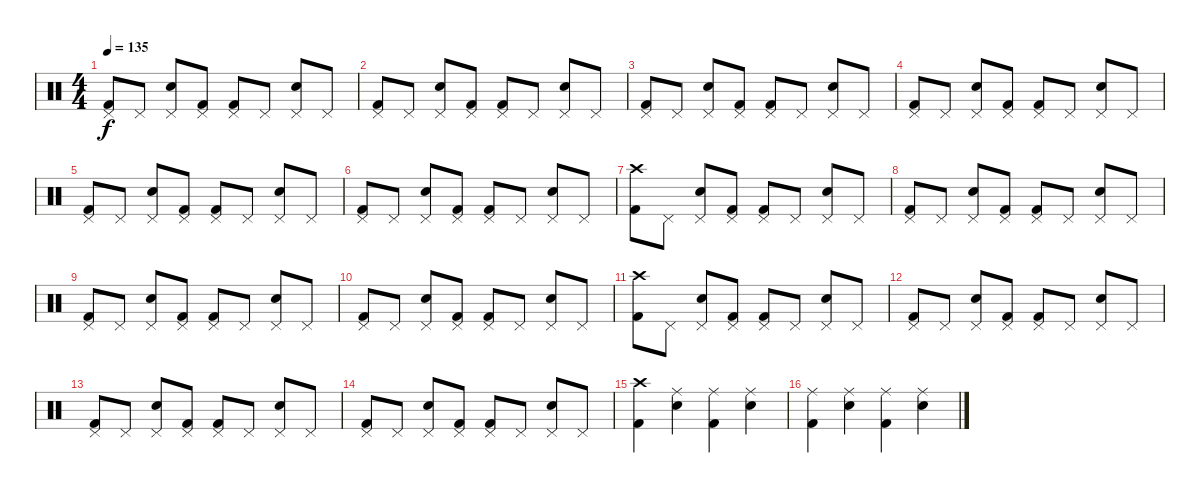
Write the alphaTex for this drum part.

\track "" {instrument percussion}
\staff {score}
\articulation defaults
\ts (4 4)
\tempo 135
\clef neutral
\ks c
("Pedal Hi-Hat (hit)" "Kick (hit) 2").8{dy f} "Pedal Hi-Hat (hit)".8 ("Pedal Hi-Hat (hit)" "Snare (hit) 2").8 ("Pedal Hi-Hat (hit)" "Kick (hit) 2").8 ("Pedal Hi-Hat (hit)" "Kick (hit) 2").8 "Pedal Hi-Hat (hit)".8 ("Pedal Hi-Hat (hit)" "Snare (hit) 2").8 "Pedal Hi-Hat (hit)".8 |
("Pedal Hi-Hat (hit)" "Kick (hit) 2").8 "Pedal Hi-Hat (hit)".8 ("Pedal Hi-Hat (hit)" "Snare (hit) 2").8 ("Pedal Hi-Hat (hit)" "Kick (hit) 2").8 ("Pedal Hi-Hat (hit)" "Kick (hit) 2").8 "Pedal Hi-Hat (hit)".8 ("Pedal Hi-Hat (hit)" "Snare (hit) 2").8 "Pedal Hi-Hat (hit)".8 |
("Pedal Hi-Hat (hit)" "Kick (hit) 2").8 "Pedal Hi-Hat (hit)".8 ("Pedal Hi-Hat (hit)" "Snare (hit) 2").8 ("Pedal Hi-Hat (hit)" "Kick (hit) 2").8 ("Pedal Hi-Hat (hit)" "Kick (hit) 2").8 "Pedal Hi-Hat (hit)".8 ("Pedal Hi-Hat (hit)" "Snare (hit) 2").8 "Pedal Hi-Hat (hit)".8 |
("Pedal Hi-Hat (hit)" "Kick (hit) 2").8 "Pedal Hi-Hat (hit)".8 ("Pedal Hi-Hat (hit)" "Snare (hit) 2").8 ("Pedal Hi-Hat (hit)" "Kick (hit) 2").8 ("Pedal Hi-Hat (hit)" "Kick (hit) 2").8 "Pedal Hi-Hat (hit)".8 ("Pedal Hi-Hat (hit)" "Snare (hit) 2").8 "Pedal Hi-Hat (hit)".8 |
("Pedal Hi-Hat (hit)" "Kick (hit) 2").8 "Pedal Hi-Hat (hit)".8 ("Pedal Hi-Hat (hit)" "Snare (hit) 2").8 ("Pedal Hi-Hat (hit)" "Kick (hit) 2").8 ("Pedal Hi-Hat (hit)" "Kick (hit) 2").8 "Pedal Hi-Hat (hit)".8 ("Pedal Hi-Hat (hit)" "Snare (hit) 2").8 "Pedal Hi-Hat (hit)".8 |
("Pedal Hi-Hat (hit)" "Kick (hit) 2").8 "Pedal Hi-Hat (hit)".8 ("Pedal Hi-Hat (hit)" "Snare (hit) 2").8 ("Pedal Hi-Hat (hit)" "Kick (hit) 2").8 ("Pedal Hi-Hat (hit)" "Kick (hit) 2").8 "Pedal Hi-Hat (hit)".8 ("Pedal Hi-Hat (hit)" "Snare (hit) 2").8 "Pedal Hi-Hat (hit)".8 |
("Crash high (hit)" "Kick (hit) 2").8 "Pedal Hi-Hat (hit)".8 ("Pedal Hi-Hat (hit)" "Snare (hit) 2").8 ("Pedal Hi-Hat (hit)" "Kick (hit) 2").8 ("Pedal Hi-Hat (hit)" "Kick (hit) 2").8 "Pedal Hi-Hat (hit)".8 ("Pedal Hi-Hat (hit)" "Snare (hit) 2").8 "Pedal Hi-Hat (hit)".8 |
("Pedal Hi-Hat (hit)" "Kick (hit) 2").8 "Pedal Hi-Hat (hit)".8 ("Pedal Hi-Hat (hit)" "Snare (hit) 2").8 ("Pedal Hi-Hat (hit)" "Kick (hit) 2").8 ("Pedal Hi-Hat (hit)" "Kick (hit) 2").8 "Pedal Hi-Hat (hit)".8 ("Pedal Hi-Hat (hit)" "Snare (hit) 2").8 "Pedal Hi-Hat (hit)".8 |
("Pedal Hi-Hat (hit)" "Kick (hit) 2").8 "Pedal Hi-Hat (hit)".8 ("Pedal Hi-Hat (hit)" "Snare (hit) 2").8 ("Pedal Hi-Hat (hit)" "Kick (hit) 2").8 ("Pedal Hi-Hat (hit)" "Kick (hit) 2").8 "Pedal Hi-Hat (hit)".8 ("Pedal Hi-Hat (hit)" "Snare (hit) 2").8 "Pedal Hi-Hat (hit)".8 |
("Pedal Hi-Hat (hit)" "Kick (hit) 2").8 "Pedal Hi-Hat (hit)".8 ("Pedal Hi-Hat (hit)" "Snare (hit) 2").8 ("Pedal Hi-Hat (hit)" "Kick (hit) 2").8 ("Pedal Hi-Hat (hit)" "Kick (hit) 2").8 "Pedal Hi-Hat (hit)".8 ("Pedal Hi-Hat (hit)" "Snare (hit) 2").8 "Pedal Hi-Hat (hit)".8 |
("Crash high (hit)" "Kick (hit) 2").8 "Pedal Hi-Hat (hit)".8 ("Pedal Hi-Hat (hit)" "Snare (hit) 2").8 ("Pedal Hi-Hat (hit)" "Kick (hit) 2").8 ("Pedal Hi-Hat (hit)" "Kick (hit) 2").8 "Pedal Hi-Hat (hit)".8 ("Pedal Hi-Hat (hit)" "Snare (hit) 2").8 "Pedal Hi-Hat (hit)".8 |
("Pedal Hi-Hat (hit)" "Kick (hit) 2").8 "Pedal Hi-Hat (hit)".8 ("Pedal Hi-Hat (hit)" "Snare (hit) 2").8 ("Pedal Hi-Hat (hit)" "Kick (hit) 2").8 ("Pedal Hi-Hat (hit)" "Kick (hit) 2").8 "Pedal Hi-Hat (hit)".8 ("Pedal Hi-Hat (hit)" "Snare (hit) 2").8 "Pedal Hi-Hat (hit)".8 |
("Pedal Hi-Hat (hit)" "Kick (hit) 2").8 "Pedal Hi-Hat (hit)".8 ("Pedal Hi-Hat (hit)" "Snare (hit) 2").8 ("Pedal Hi-Hat (hit)" "Kick (hit) 2").8 ("Pedal Hi-Hat (hit)" "Kick (hit) 2").8 "Pedal Hi-Hat (hit)".8 ("Pedal Hi-Hat (hit)" "Snare (hit) 2").8 "Pedal Hi-Hat (hit)".8 |
("Pedal Hi-Hat (hit)" "Kick (hit) 2").8 "Pedal Hi-Hat (hit)".8 ("Pedal Hi-Hat (hit)" "Snare (hit) 2").8 ("Pedal Hi-Hat (hit)" "Kick (hit) 2").8 ("Pedal Hi-Hat (hit)" "Kick (hit) 2").8 "Pedal Hi-Hat (hit)".8 ("Pedal Hi-Hat (hit)" "Snare (hit) 2").8 "Pedal Hi-Hat (hit)".8 |
("Crash high (hit)" "Kick (hit) 2").4 ("Ride (middle)" "Snare (hit) 2").4 ("Ride (middle)" "Kick (hit) 2").4 ("Ride (middle)" "Snare (hit) 2").4 |
("Ride (middle)" "Kick (hit) 2").4 ("Ride (middle)" "Snare (hit) 2").4 ("Ride (middle)" "Kick (hit) 2").4 ("Ride (middle)" "Snare (hit) 2").4
